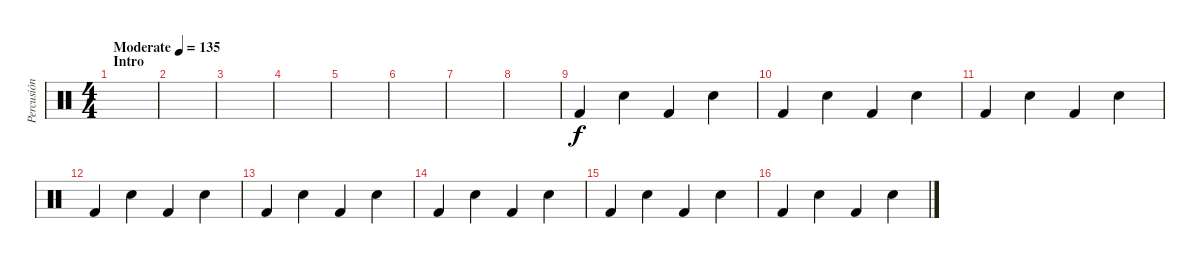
\track ("Percusión" "Percusión") {instrument percussion}
\staff {score}
\articulation defaults
\ts (4 4)
\section ("" "Intro")
\tempo (135 "Moderate")
\clef neutral
\ks c
|
|
|
|
|
|
|
|
"Kick (hit) 2".4 "Hand Clap (hit)".4 "Kick (hit) 2".4 "Hand Clap (hit)".4 |
"Kick (hit) 2".4 "Hand Clap (hit)".4 "Kick (hit) 2".4 "Hand Clap (hit)".4 |
"Kick (hit) 2".4 "Hand Clap (hit)".4 "Kick (hit) 2".4 "Hand Clap (hit)".4 |
"Kick (hit) 2".4 "Hand Clap (hit)".4 "Kick (hit) 2".4 "Hand Clap (hit)".4 |
"Kick (hit) 2".4 "Hand Clap (hit)".4 "Kick (hit) 2".4 "Hand Clap (hit)".4 |
"Kick (hit) 2".4 "Hand Clap (hit)".4 "Kick (hit) 2".4 "Hand Clap (hit)".4 |
"Kick (hit) 2".4 "Hand Clap (hit)".4 "Kick (hit) 2".4 "Hand Clap (hit)".4 |
"Kick (hit) 2".4 "Hand Clap (hit)".4 "Kick (hit) 2".4 "Hand Clap (hit)".4
